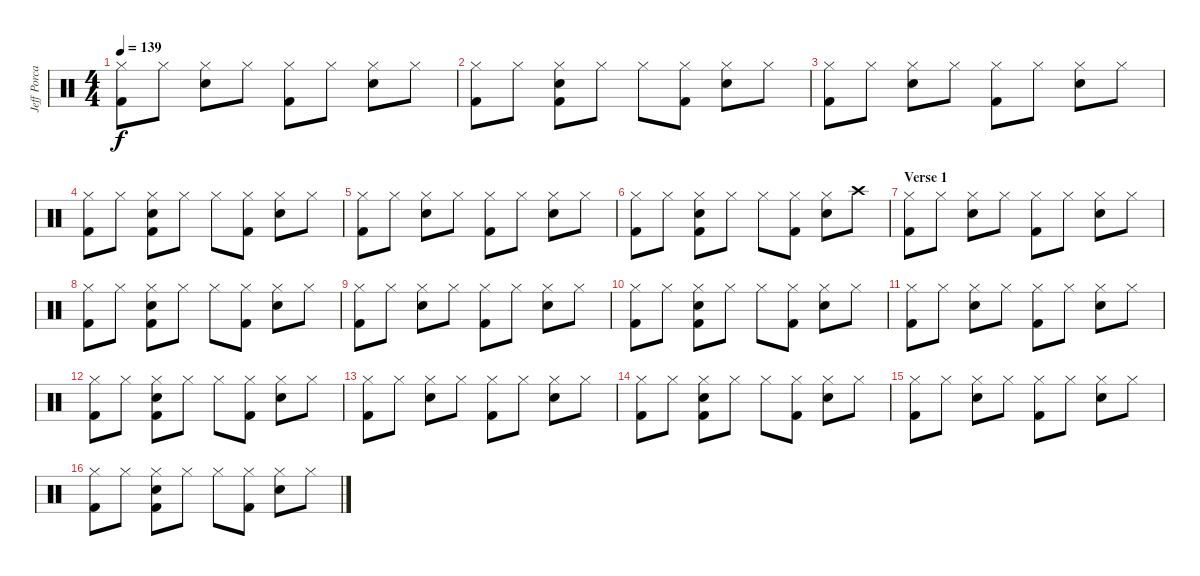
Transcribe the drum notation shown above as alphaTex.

\track ("Jeff Porcaro (Percussion)" "Jeff Porca") {instrument percussion}
\staff {score}
\articulation defaults
\ts (4 4)
\tempo 139
\clef neutral
\ks c
("Hi-Hat (closed)" "Kick (hit) 2").8{dy f} "Hi-Hat (closed)".8 ("Hi-Hat (closed)" "Snare (hit) 2").8 "Hi-Hat (closed)".8 ("Hi-Hat (closed)" "Kick (hit) 2").8 "Hi-Hat (closed)".8 ("Hi-Hat (closed)" "Snare (hit) 2").8 "Hi-Hat (closed)".8 |
("Hi-Hat (closed)" "Kick (hit) 2").8 "Hi-Hat (closed)".8 ("Hi-Hat (closed)" "Snare (hit) 2" "Kick (hit) 2").8 "Hi-Hat (closed)".8 "Hi-Hat (closed)".8 ("Hi-Hat (closed)" "Kick (hit) 2").8 ("Hi-Hat (closed)" "Snare (hit) 2").8 "Hi-Hat (closed)".8 |
("Hi-Hat (closed)" "Kick (hit) 2").8 "Hi-Hat (closed)".8 ("Hi-Hat (closed)" "Snare (hit) 2").8 "Hi-Hat (closed)".8 ("Hi-Hat (closed)" "Kick (hit) 2").8 "Hi-Hat (closed)".8 ("Hi-Hat (closed)" "Snare (hit) 2").8 "Hi-Hat (closed)".8 |
("Hi-Hat (closed)" "Kick (hit) 2").8 "Hi-Hat (closed)".8 ("Hi-Hat (closed)" "Snare (hit) 2" "Kick (hit) 2").8 "Hi-Hat (closed)".8 "Hi-Hat (closed)".8 ("Hi-Hat (closed)" "Kick (hit) 2").8 ("Hi-Hat (closed)" "Snare (hit) 2").8 "Hi-Hat (closed)".8 |
("Hi-Hat (closed)" "Kick (hit) 2").8 "Hi-Hat (closed)".8 ("Hi-Hat (closed)" "Snare (hit) 2").8 "Hi-Hat (closed)".8 ("Hi-Hat (closed)" "Kick (hit) 2").8 "Hi-Hat (closed)".8 ("Hi-Hat (closed)" "Snare (hit) 2").8 "Hi-Hat (closed)".8 |
("Hi-Hat (closed)" "Kick (hit) 2").8 "Hi-Hat (closed)".8 ("Hi-Hat (closed)" "Snare (hit) 2" "Kick (hit) 2").8 "Hi-Hat (closed)".8 "Hi-Hat (closed)".8 ("Hi-Hat (closed)" "Kick (hit) 2").8 ("Hi-Hat (closed)" "Snare (hit) 2").8 "Crash high (hit)".8 |
\section ("" "Verse 1")
("Hi-Hat (closed)" "Kick (hit) 2").8 "Hi-Hat (closed)".8 ("Hi-Hat (closed)" "Snare (hit) 2").8 "Hi-Hat (closed)".8 ("Hi-Hat (closed)" "Kick (hit) 2").8 "Hi-Hat (closed)".8 ("Hi-Hat (closed)" "Snare (hit) 2").8 "Hi-Hat (closed)".8 |
("Hi-Hat (closed)" "Kick (hit) 2").8 "Hi-Hat (closed)".8 ("Hi-Hat (closed)" "Snare (hit) 2" "Kick (hit) 2").8 "Hi-Hat (closed)".8 "Hi-Hat (closed)".8 ("Hi-Hat (closed)" "Kick (hit) 2").8 ("Hi-Hat (closed)" "Snare (hit) 2").8 "Hi-Hat (closed)".8 |
("Hi-Hat (closed)" "Kick (hit) 2").8 "Hi-Hat (closed)".8 ("Hi-Hat (closed)" "Snare (hit) 2").8 "Hi-Hat (closed)".8 ("Hi-Hat (closed)" "Kick (hit) 2").8 "Hi-Hat (closed)".8 ("Hi-Hat (closed)" "Snare (hit) 2").8 "Hi-Hat (closed)".8 |
("Hi-Hat (closed)" "Kick (hit) 2").8 "Hi-Hat (closed)".8 ("Hi-Hat (closed)" "Snare (hit) 2" "Kick (hit) 2").8 "Hi-Hat (closed)".8 "Hi-Hat (closed)".8 ("Hi-Hat (closed)" "Kick (hit) 2").8 ("Hi-Hat (closed)" "Snare (hit) 2").8 "Hi-Hat (closed)".8 |
("Hi-Hat (closed)" "Kick (hit) 2").8 "Hi-Hat (closed)".8 ("Hi-Hat (closed)" "Snare (hit) 2").8 "Hi-Hat (closed)".8 ("Hi-Hat (closed)" "Kick (hit) 2").8 "Hi-Hat (closed)".8 ("Hi-Hat (closed)" "Snare (hit) 2").8 "Hi-Hat (closed)".8 |
("Hi-Hat (closed)" "Kick (hit) 2").8 "Hi-Hat (closed)".8 ("Hi-Hat (closed)" "Snare (hit) 2" "Kick (hit) 2").8 "Hi-Hat (closed)".8 "Hi-Hat (closed)".8 ("Hi-Hat (closed)" "Kick (hit) 2").8 ("Hi-Hat (closed)" "Snare (hit) 2").8 "Hi-Hat (closed)".8 |
("Hi-Hat (closed)" "Kick (hit) 2").8 "Hi-Hat (closed)".8 ("Hi-Hat (closed)" "Snare (hit) 2").8 "Hi-Hat (closed)".8 ("Hi-Hat (closed)" "Kick (hit) 2").8 "Hi-Hat (closed)".8 ("Hi-Hat (closed)" "Snare (hit) 2").8 "Hi-Hat (closed)".8 |
("Hi-Hat (closed)" "Kick (hit) 2").8 "Hi-Hat (closed)".8 ("Hi-Hat (closed)" "Snare (hit) 2" "Kick (hit) 2").8 "Hi-Hat (closed)".8 "Hi-Hat (closed)".8 ("Hi-Hat (closed)" "Kick (hit) 2").8 ("Hi-Hat (closed)" "Snare (hit) 2").8 "Hi-Hat (closed)".8 |
("Hi-Hat (closed)" "Kick (hit) 2").8 "Hi-Hat (closed)".8 ("Hi-Hat (closed)" "Snare (hit) 2").8 "Hi-Hat (closed)".8 ("Hi-Hat (closed)" "Kick (hit) 2").8 "Hi-Hat (closed)".8 ("Hi-Hat (closed)" "Snare (hit) 2").8 "Hi-Hat (closed)".8 |
("Hi-Hat (closed)" "Kick (hit) 2").8 "Hi-Hat (closed)".8 ("Hi-Hat (closed)" "Snare (hit) 2" "Kick (hit) 2").8 "Hi-Hat (closed)".8 "Hi-Hat (closed)".8 ("Hi-Hat (closed)" "Kick (hit) 2").8 ("Hi-Hat (closed)" "Snare (hit) 2").8 "Hi-Hat (closed)".8
